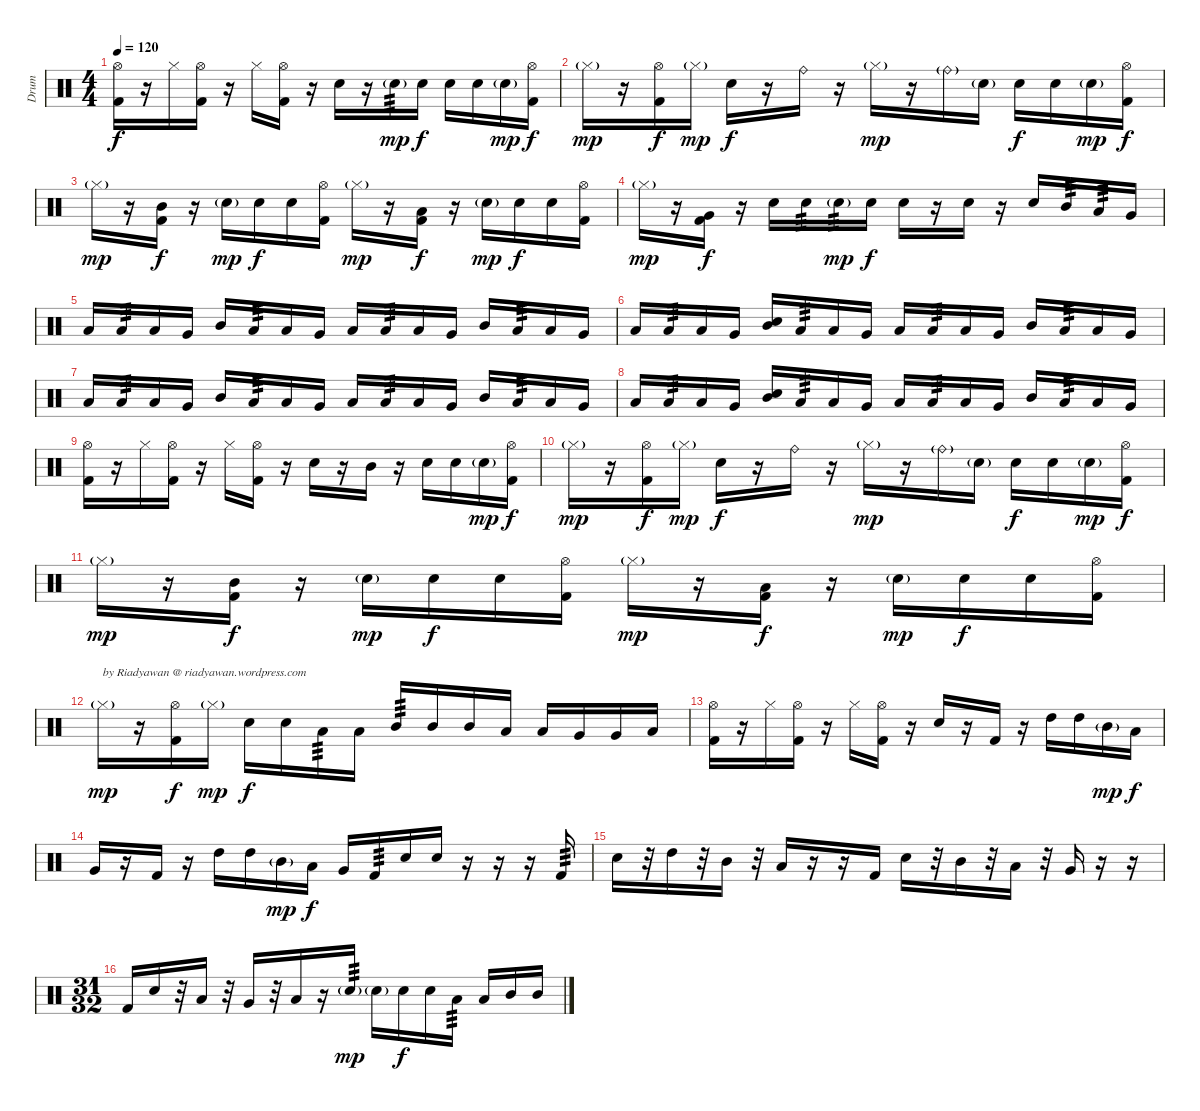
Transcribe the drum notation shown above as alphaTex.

\track ("Drum" "Drum") {instrument percussion}
\staff {score}
\articulation defaults
\ts (4 4)
\tempo 120
\clef neutral
\ks c
("Hi-Hat (open)" "Kick (hit) 2").16{dy f} r.16 "Hi-Hat (closed)".16 ("Hi-Hat (open)" "Kick (hit) 2").16 r.16 "Hi-Hat (closed)".16 ("Hi-Hat (open)" "Kick (hit) 2").16 r.16 "Snare (hit) 2".16 r.16 "Snare (hit) 2"{g}.16{tp 3 dy mp} "Snare (hit) 2".16{dy f} "Snare (hit) 2".16 "Snare (hit) 2".16 "Snare (hit) 2"{g}.16{dy mp} ("Hi-Hat (open)" "Kick (hit) 2").16{dy f} |
"Hi-Hat (closed)"{g}.16{dy mp} r.16 ("Hi-Hat (open)" "Kick (hit) 2").16{dy f} "Hi-Hat (closed)"{g}.16{dy mp} "Snare (hit) 2".16{dy f} r.16 "Ride (bell)".16 r.16 "Hi-Hat (closed)"{g}.16{dy mp} r.16 "Ride (bell)"{g}.16 "Snare (hit) 2"{g}.16 "Snare (hit) 2".16{dy f} "Snare (hit) 2".16 "Snare (hit) 2"{g}.16{dy mp} ("Hi-Hat (open)" "Kick (hit) 2").16{dy f} |
"Hi-Hat (closed)"{g}.16{dy mp} r.16 ("Mid Tom (hit)" "Kick (hit) 2").16{dy f} r.16 "Snare (hit) 2"{g}.16{dy mp} "Snare (hit) 2".16{dy f} "Snare (hit) 2".16 ("Hi-Hat (open)" "Kick (hit) 2").16 "Hi-Hat (closed)"{g}.16{dy mp} r.16 ("Low Tom (hit)" "Kick (hit) 2").16{dy f} r.16 "Snare (hit) 2"{g}.16{dy mp} "Snare (hit) 2".16{dy f} "Snare (hit) 2".16 ("Hi-Hat (open)" "Kick (hit) 2").16 |
"Hi-Hat (closed)"{g}.16{dy mp} r.16 ("Very Low Tom (hit)" "Kick (hit) 2").16{dy f} r.16 "Snare (hit) 2".16 "Snare (hit) 2".16{tp 3} "Snare (hit) 2"{g}.16{tp 3 dy mp} "Snare (hit) 2".16{dy f} "Snare (hit) 2".16 r.16 "Snare (hit) 2".16 r.16 "Snare (hit) 2".16 "Mid Tom (hit)".16{tp 3} "Low Tom (hit)".16{tp 3} "Very Low Tom (hit)".16 |
"Low Tom (hit)".16 "Low Tom (hit)".16{tp 3} "Low Tom (hit)".16 "Very Low Tom (hit)".16 "Mid Tom (hit)".16 "Low Tom (hit)".16{tp 3} "Low Tom (hit)".16 "Very Low Tom (hit)".16 "Low Tom (hit)".16 "Low Tom (hit)".16{tp 3} "Low Tom (hit)".16 "Very Low Tom (hit)".16 "Mid Tom (hit)".16 "Low Tom (hit)".16{tp 3} "Low Tom (hit)".16 "Very Low Tom (hit)".16 |
"Low Tom (hit)".16 "Low Tom (hit)".16{tp 3} "Low Tom (hit)".16 "Very Low Tom (hit)".16 ("Snare (hit) 2" "Mid Tom (hit)").16 "Low Tom (hit)".16{tp 3} "Low Tom (hit)".16 "Very Low Tom (hit)".16 "Low Tom (hit)".16 "Low Tom (hit)".16{tp 3} "Low Tom (hit)".16 "Very Low Tom (hit)".16 "Mid Tom (hit)".16 "Low Tom (hit)".16{tp 3} "Low Tom (hit)".16 "Very Low Tom (hit)".16 |
"Low Tom (hit)".16 "Low Tom (hit)".16{tp 3} "Low Tom (hit)".16 "Very Low Tom (hit)".16 "Mid Tom (hit)".16 "Low Tom (hit)".16{tp 3} "Low Tom (hit)".16 "Very Low Tom (hit)".16 "Low Tom (hit)".16 "Low Tom (hit)".16{tp 3} "Low Tom (hit)".16 "Very Low Tom (hit)".16 "Mid Tom (hit)".16 "Low Tom (hit)".16{tp 3} "Low Tom (hit)".16 "Very Low Tom (hit)".16 |
"Low Tom (hit)".16 "Low Tom (hit)".16{tp 3} "Low Tom (hit)".16 "Very Low Tom (hit)".16 ("Snare (hit) 2" "Mid Tom (hit)").16 "Low Tom (hit)".16{tp 3} "Low Tom (hit)".16 "Very Low Tom (hit)".16 "Low Tom (hit)".16 "Low Tom (hit)".16{tp 3} "Low Tom (hit)".16 "Very Low Tom (hit)".16 "Mid Tom (hit)".16 "Low Tom (hit)".16{tp 3} "Low Tom (hit)".16 "Very Low Tom (hit)".16 |
("Hi-Hat (open)" "Kick (hit) 2").16 r.16 "Hi-Hat (closed)".16 ("Hi-Hat (open)" "Kick (hit) 2").16 r.16 "Hi-Hat (closed)".16 ("Hi-Hat (open)" "Kick (hit) 2").16 r.16 "Snare (hit) 2".16 r.16 "Mid Tom (hit)".16 r.16 "Snare (hit) 2".16 "Snare (hit) 2".16 "Snare (hit) 2"{g}.16{dy mp} ("Hi-Hat (open)" "Kick (hit) 2").16{dy f} |
"Hi-Hat (closed)"{g}.16{dy mp} r.16 ("Hi-Hat (open)" "Kick (hit) 2").16{dy f} "Hi-Hat (closed)"{g}.16{dy mp} "Snare (hit) 2".16{dy f} r.16 "Ride (bell)".16 r.16 "Hi-Hat (closed)"{g}.16{dy mp} r.16 "Ride (bell)"{g}.16 "Snare (hit) 2"{g}.16 "Snare (hit) 2".16{dy f} "Snare (hit) 2".16 "Snare (hit) 2"{g}.16{dy mp} ("Hi-Hat (open)" "Kick (hit) 2").16{dy f} |
"Hi-Hat (closed)"{g}.16{dy mp} r.16 ("Mid Tom (hit)" "Kick (hit) 2").16{dy f} r.16 "Snare (hit) 2"{g}.16{dy mp} "Snare (hit) 2".16{dy f} "Snare (hit) 2".16 ("Hi-Hat (open)" "Kick (hit) 2").16 "Hi-Hat (closed)"{g}.16{dy mp} r.16 ("Low Tom (hit)" "Kick (hit) 2").16{dy f} r.16 "Snare (hit) 2"{g}.16{dy mp} "Snare (hit) 2".16{dy f} "Snare (hit) 2".16 ("Hi-Hat (open)" "Kick (hit) 2").16 |
"Hi-Hat (closed)"{g}.16{txt "by Riadyawan @ riadyawan.wordpress.com" dy mp} r.16 ("Hi-Hat (open)" "Kick (hit) 2").16{dy f} "Hi-Hat (closed)"{g}.16{dy mp} "Snare (hit) 2".16{dy f} "Snare (hit) 2".16 "Low Tom (hit)".16{tp 3} "Low Tom (hit)".16 "Mid Tom (hit)".16{tp 3} "Mid Tom (hit)".16 "Mid Tom (hit)".16 "Low Tom (hit)".16 "Low Tom (hit)".16 "Very Low Tom (hit)".16 "Very Low Tom (hit)".16 "Low Floor Tom (hit)".16 |
("Hi-Hat (open)" "Kick (hit) 2").16 r.16 "Hi-Hat (closed)".16 ("Hi-Hat (open)" "Kick (hit) 2").16 r.16 "Hi-Hat (closed)".16 ("Hi-Hat (open)" "Kick (hit) 2").16 r.16 "Snare (hit) 2".16 r.16 "Kick (hit) 2".16 r.16 "High Tom (hit)".16 "High Tom (hit)".16 "Mid Tom (hit)"{g}.16{dy mp} "Low Tom (hit)".16{dy f} |
"Very Low Tom (hit)".16 r.16 "Kick (hit) 2".16 r.16 "High Tom (hit)".16 "High Tom (hit)".16 "Mid Tom (hit)"{g}.16{dy mp} "Low Tom (hit)".16{dy f} "Very Low Tom (hit)".16 "Kick (hit) 2".16{tp 3} "Snare (hit) 2".16 "Snare (hit) 2".16 r.16 r.16 r.16 "Kick (hit) 2".16{tp 3} |
"Snare (hit) 2".16 r.32 "High Tom (hit)".16 r.32 "Mid Tom (hit)".16 r.32 "Low Tom (hit)".16 r.16 r.16 "Kick (hit) 2".16 "Snare (hit) 2".16 r.32 "Mid Tom (hit)".16 r.32 "Low Tom (hit)".16 r.32 "Very Low Tom (hit)".16 r.16 r.16 |
\ts (31 32)
"Kick (hit) 2".16 "Snare (hit) 2".16 r.32 "Low Tom (hit)".16 r.32 "Very Low Tom (hit)".16 r.32 "Low Floor Tom (hit)".16 r.16 "Snare (hit) 2"{g}.16{tp 3 dy mp} "Snare (hit) 2"{g}.16 "Snare (hit) 2".16{dy f} "Snare (hit) 2".16 "Low Tom (hit)".16{tp 3} "Low Tom (hit)".16 "Mid Tom (hit)".16 "Mid Tom (hit)".16
